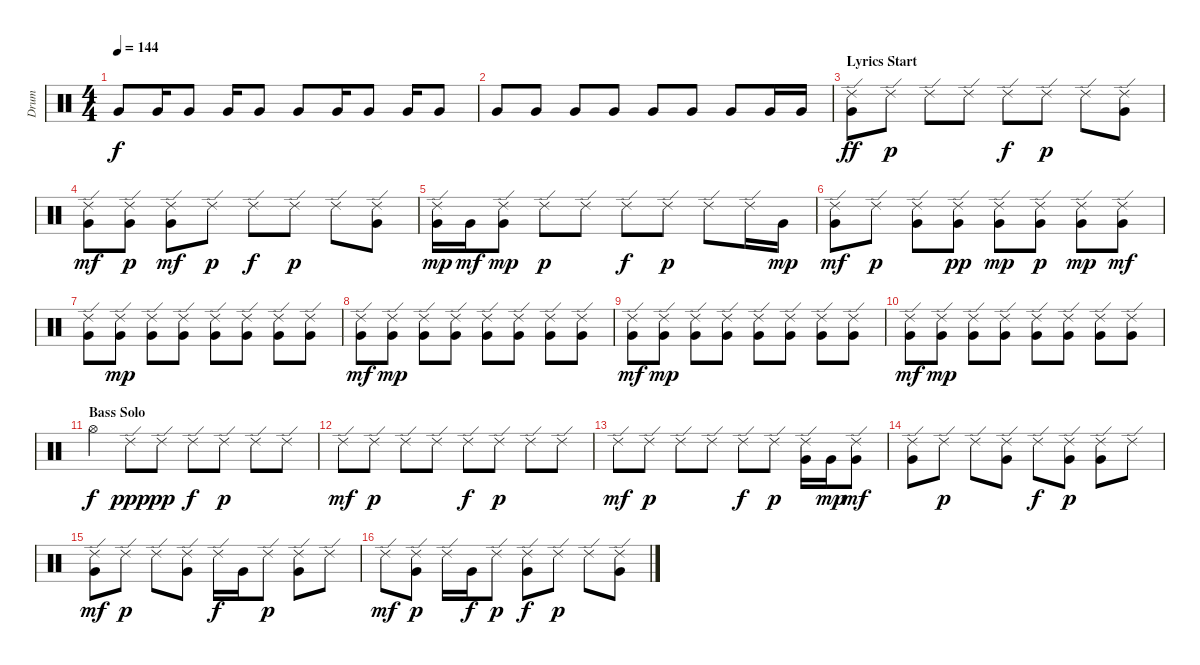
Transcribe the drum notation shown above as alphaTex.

\track ("Drum" "Drum") {instrument percussion}
\staff {score}
\articulation defaults
\ts (4 4)
\tempo 144
\clef neutral
\ks c "Very Low Tom (hit)".8{dy f} "Very Low Tom (hit)".16 "Very Low Tom (hit)".8 "Very Low Tom (hit)".16 "Very Low Tom (hit)".8 "Very Low Tom (hit)".8 "Very Low Tom (hit)".16 "Very Low Tom (hit)".8 "Very Low Tom (hit)".16 "Very Low Tom (hit)".8
|
"Very Low Tom (hit)".8 "Very Low Tom (hit)".8 "Very Low Tom (hit)".8 "Very Low Tom (hit)".8 "Very Low Tom (hit)".8 "Very Low Tom (hit)".8 "Very Low Tom (hit)".8 "Very Low Tom (hit)".16 "Very Low Tom (hit)".16 |
\section ("" "Lyrics Start")
("Ride (edge) 2" "Very Low Tom (hit)").8{dy ff} "Ride (edge) 2".8{dy p} "Ride (edge) 2".8 "Ride (edge) 2".8 "Ride (edge) 2".8{dy f} "Ride (edge) 2".8{dy p} "Ride (edge) 2".8 ("Ride (edge) 2" "Very Low Tom (hit)").8 |
("Ride (edge) 2" "Very Low Tom (hit)").8{dy mf} ("Ride (edge) 2" "Very Low Tom (hit)").8{dy p} ("Ride (edge) 2" "Very Low Tom (hit)").8{dy mf} "Ride (edge) 2".8{dy p} "Ride (edge) 2".8{dy f} "Ride (edge) 2".8{dy p} "Ride (edge) 2".8 ("Ride (edge) 2" "Very Low Tom (hit)").8 |
("Ride (edge) 2" "Very Low Tom (hit)").16{dy mp} "Very Low Tom (hit)".16{dy mf} ("Ride (edge) 2" "Very Low Tom (hit)").8{dy mp} "Ride (edge) 2".8{dy p} "Ride (edge) 2".8 "Ride (edge) 2".8{dy f} "Ride (edge) 2".8{dy p} "Ride (edge) 2".8 "Ride (edge) 2".16 "Very Low Tom (hit)".16{dy mp} |
("Ride (edge) 2" "Very Low Tom (hit)").8{dy mf} "Ride (edge) 2".8{dy p} ("Ride (edge) 2" "Very Low Tom (hit)").8 ("Ride (edge) 2" "Very Low Tom (hit)").8{dy pp} ("Ride (edge) 2" "Very Low Tom (hit)").8{dy mp} ("Ride (edge) 2" "Very Low Tom (hit)").8{dy p} ("Ride (edge) 2" "Very Low Tom (hit)").8{dy mp} ("Ride (edge) 2" "Very Low Tom (hit)").8{dy mf} |
("Ride (edge) 2" "Very Low Tom (hit)").8 ("Ride (edge) 2" "Very Low Tom (hit)").8{dy mp} ("Ride (edge) 2" "Very Low Tom (hit)").8 ("Ride (edge) 2" "Very Low Tom (hit)").8 ("Ride (edge) 2" "Very Low Tom (hit)").8 ("Ride (edge) 2" "Very Low Tom (hit)").8 ("Ride (edge) 2" "Very Low Tom (hit)").8 ("Ride (edge) 2" "Very Low Tom (hit)").8 |
("Ride (edge) 2" "Very Low Tom (hit)").8{dy mf} ("Ride (edge) 2" "Very Low Tom (hit)").8{dy mp} ("Ride (edge) 2" "Very Low Tom (hit)").8 ("Ride (edge) 2" "Very Low Tom (hit)").8 ("Ride (edge) 2" "Very Low Tom (hit)").8 ("Ride (edge) 2" "Very Low Tom (hit)").8 ("Ride (edge) 2" "Very Low Tom (hit)").8 ("Ride (edge) 2" "Very Low Tom (hit)").8 |
("Ride (edge) 2" "Very Low Tom (hit)").8{dy mf} ("Ride (edge) 2" "Very Low Tom (hit)").8{dy mp} ("Ride (edge) 2" "Very Low Tom (hit)").8 ("Ride (edge) 2" "Very Low Tom (hit)").8 ("Ride (edge) 2" "Very Low Tom (hit)").8 ("Ride (edge) 2" "Very Low Tom (hit)").8 ("Ride (edge) 2" "Very Low Tom (hit)").8 ("Ride (edge) 2" "Very Low Tom (hit)").8 |
("Ride (edge) 2" "Very Low Tom (hit)").8{dy mf} ("Ride (edge) 2" "Very Low Tom (hit)").8{dy mp} ("Ride (edge) 2" "Very Low Tom (hit)").8 ("Ride (edge) 2" "Very Low Tom (hit)").8 ("Ride (edge) 2" "Very Low Tom (hit)").8 ("Ride (edge) 2" "Very Low Tom (hit)").8 ("Ride (edge) 2" "Very Low Tom (hit)").8 ("Ride (edge) 2" "Very Low Tom (hit)").8 |
\section ("" "Bass Solo")
"Hi-Hat (open)".4{dy f} "Ride (edge) 2".8{dy ppp} "Ride (edge) 2".8{dy pp} "Ride (edge) 2".8{dy f} "Ride (edge) 2".8{dy p} "Ride (edge) 2".8 "Ride (edge) 2".8 |
"Ride (edge) 2".8{dy mf} "Ride (edge) 2".8{dy p} "Ride (edge) 2".8 "Ride (edge) 2".8 "Ride (edge) 2".8{dy f} "Ride (edge) 2".8{dy p} "Ride (edge) 2".8 "Ride (edge) 2".8 |
"Ride (edge) 2".8{dy mf} "Ride (edge) 2".8{dy p} "Ride (edge) 2".8 "Ride (edge) 2".8 "Ride (edge) 2".8{dy f} "Ride (edge) 2".8{dy p} ("Ride (edge) 2" "Very Low Tom (hit)").16 "Very Low Tom (hit)".16{dy mp} ("Ride (edge) 2" "Very Low Tom (hit)").8{dy mf} |
("Ride (edge) 2" "Very Low Tom (hit)").8 "Ride (edge) 2".8{dy p} "Ride (edge) 2".8 ("Ride (edge) 2" "Very Low Tom (hit)").8 "Ride (edge) 2".8{dy f} ("Ride (edge) 2" "Very Low Tom (hit)").8{dy p} ("Ride (edge) 2" "Very Low Tom (hit)").8 "Ride (edge) 2".8 |
("Ride (edge) 2" "Very Low Tom (hit)").8{dy mf} "Ride (edge) 2".8{dy p} "Ride (edge) 2".8 ("Ride (edge) 2" "Very Low Tom (hit)").8 "Ride (edge) 2".16{dy f} "Very Low Tom (hit)".16 "Ride (edge) 2".8{dy p} ("Ride (edge) 2" "Very Low Tom (hit)").8 "Ride (edge) 2".8 |
"Ride (edge) 2".8{dy mf} ("Ride (edge) 2" "Very Low Tom (hit)").8{dy p} "Ride (edge) 2".16 "Very Low Tom (hit)".16{dy f} "Ride (edge) 2".8{dy p} ("Ride (edge) 2" "Very Low Tom (hit)").8{dy f} "Ride (edge) 2".8{dy p} "Ride (edge) 2".8 ("Ride (edge) 2" "Very Low Tom (hit)").8
